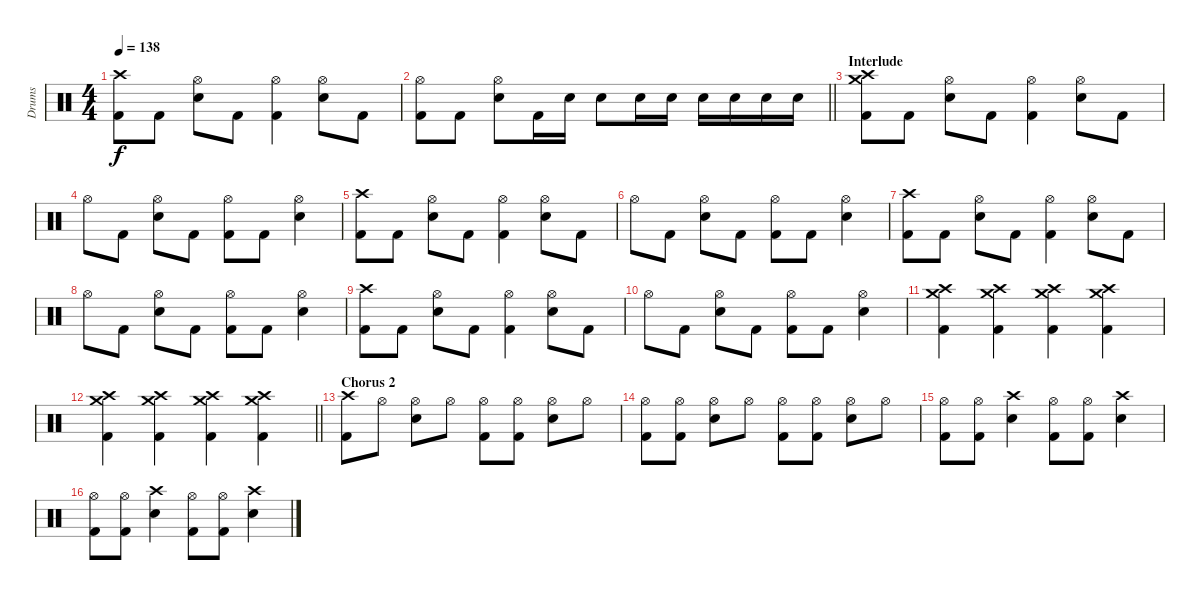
\track ("Drums" "Drums") {instrument percussion}
\staff {score}
\articulation defaults
\ts (4 4)
\tempo 138
\clef neutral
\ks c
("Crash high (hit)" "Kick (hit) 2").8{dy f} "Kick (hit) 2".8 ("Hi-Hat (open)" "Snare (hit) 2").8 "Kick (hit) 2".8 ("Hi-Hat (open)" "Kick (hit) 2").4 ("Hi-Hat (open)" "Snare (hit) 2").8 "Kick (hit) 2".8 |
\barLineRight lightlight
("Hi-Hat (open)" "Kick (hit) 2").8 "Kick (hit) 2".8 ("Hi-Hat (open)" "Snare (hit) 2").8 "Kick (hit) 2".16 "Snare (hit) 2".16 "Snare (hit) 2".8 "Snare (hit) 2".16 "Snare (hit) 2".16 "Snare (hit) 2".16 "Snare (hit) 2".16 "Snare (hit) 2".16 "Snare (hit) 2".16 |
\section ("" "Interlude")
("Crash high (hit)" "Crash medium (hit)" "Kick (hit) 2").8 "Kick (hit) 2".8 ("Hi-Hat (open)" "Snare (hit) 2").8 "Kick (hit) 2".8 ("Hi-Hat (open)" "Kick (hit) 2").4 ("Hi-Hat (open)" "Snare (hit) 2").8 "Kick (hit) 2".8 |
"Hi-Hat (open)".8 "Kick (hit) 2".8 ("Hi-Hat (open)" "Snare (hit) 2").8 "Kick (hit) 2".8 ("Hi-Hat (open)" "Kick (hit) 2").8 "Kick (hit) 2".8 ("Hi-Hat (open)" "Snare (hit) 2").4 |
("Crash high (hit)" "Kick (hit) 2").8 "Kick (hit) 2".8 ("Hi-Hat (open)" "Snare (hit) 2").8 "Kick (hit) 2".8 ("Hi-Hat (open)" "Kick (hit) 2").4 ("Hi-Hat (open)" "Snare (hit) 2").8 "Kick (hit) 2".8 |
"Hi-Hat (open)".8 "Kick (hit) 2".8 ("Hi-Hat (open)" "Snare (hit) 2").8 "Kick (hit) 2".8 ("Hi-Hat (open)" "Kick (hit) 2").8 "Kick (hit) 2".8 ("Hi-Hat (open)" "Snare (hit) 2").4 |
("Crash high (hit)" "Kick (hit) 2").8 "Kick (hit) 2".8 ("Hi-Hat (open)" "Snare (hit) 2").8 "Kick (hit) 2".8 ("Hi-Hat (open)" "Kick (hit) 2").4 ("Hi-Hat (open)" "Snare (hit) 2").8 "Kick (hit) 2".8 |
"Hi-Hat (open)".8 "Kick (hit) 2".8 ("Hi-Hat (open)" "Snare (hit) 2").8 "Kick (hit) 2".8 ("Hi-Hat (open)" "Kick (hit) 2").8 "Kick (hit) 2".8 ("Hi-Hat (open)" "Snare (hit) 2").4 |
("Crash high (hit)" "Kick (hit) 2").8 "Kick (hit) 2".8 ("Hi-Hat (open)" "Snare (hit) 2").8 "Kick (hit) 2".8 ("Hi-Hat (open)" "Kick (hit) 2").4 ("Hi-Hat (open)" "Snare (hit) 2").8 "Kick (hit) 2".8 |
"Hi-Hat (open)".8 "Kick (hit) 2".8 ("Hi-Hat (open)" "Snare (hit) 2").8 "Kick (hit) 2".8 ("Hi-Hat (open)" "Kick (hit) 2").8 "Kick (hit) 2".8 ("Hi-Hat (open)" "Snare (hit) 2").4 |
("Crash high (hit)" "Crash medium (hit)" "Kick (hit) 2").4 ("Crash high (hit)" "Crash medium (hit)" "Kick (hit) 2").4 ("Crash high (hit)" "Crash medium (hit)" "Kick (hit) 2").4 ("Crash high (hit)" "Crash medium (hit)" "Kick (hit) 2").4 |
\barLineRight lightlight
("Crash high (hit)" "Crash medium (hit)" "Kick (hit) 2").4 ("Crash high (hit)" "Crash medium (hit)" "Kick (hit) 2").4 ("Crash high (hit)" "Crash medium (hit)" "Kick (hit) 2").4 ("Crash high (hit)" "Crash medium (hit)" "Kick (hit) 2").4 |
\section ("" "Chorus 2")
("Crash high (hit)" "Kick (hit) 2").8 "Hi-Hat (open)".8 ("Hi-Hat (open)" "Snare (hit) 2").8 "Hi-Hat (open)".8 ("Hi-Hat (open)" "Kick (hit) 2").8 ("Hi-Hat (open)" "Kick (hit) 2").8 ("Hi-Hat (open)" "Snare (hit) 2").8 "Hi-Hat (open)".8 |
("Hi-Hat (open)" "Kick (hit) 2").8 ("Hi-Hat (open)" "Kick (hit) 2").8 ("Hi-Hat (open)" "Snare (hit) 2").8 "Hi-Hat (open)".8 ("Hi-Hat (open)" "Kick (hit) 2").8 ("Hi-Hat (open)" "Kick (hit) 2").8 ("Hi-Hat (open)" "Snare (hit) 2").8 "Hi-Hat (open)".8 |
("Hi-Hat (open)" "Kick (hit) 2").8 ("Hi-Hat (open)" "Kick (hit) 2").8 ("Crash high (hit)" "Snare (hit) 2").4 ("Hi-Hat (open)" "Kick (hit) 2").8 ("Hi-Hat (open)" "Kick (hit) 2").8 ("Crash high (hit)" "Snare (hit) 2").4 |
("Hi-Hat (open)" "Kick (hit) 2").8 ("Hi-Hat (open)" "Kick (hit) 2").8 ("Crash high (hit)" "Snare (hit) 2").4 ("Hi-Hat (open)" "Kick (hit) 2").8 ("Hi-Hat (open)" "Kick (hit) 2").8 ("Crash high (hit)" "Snare (hit) 2").4
